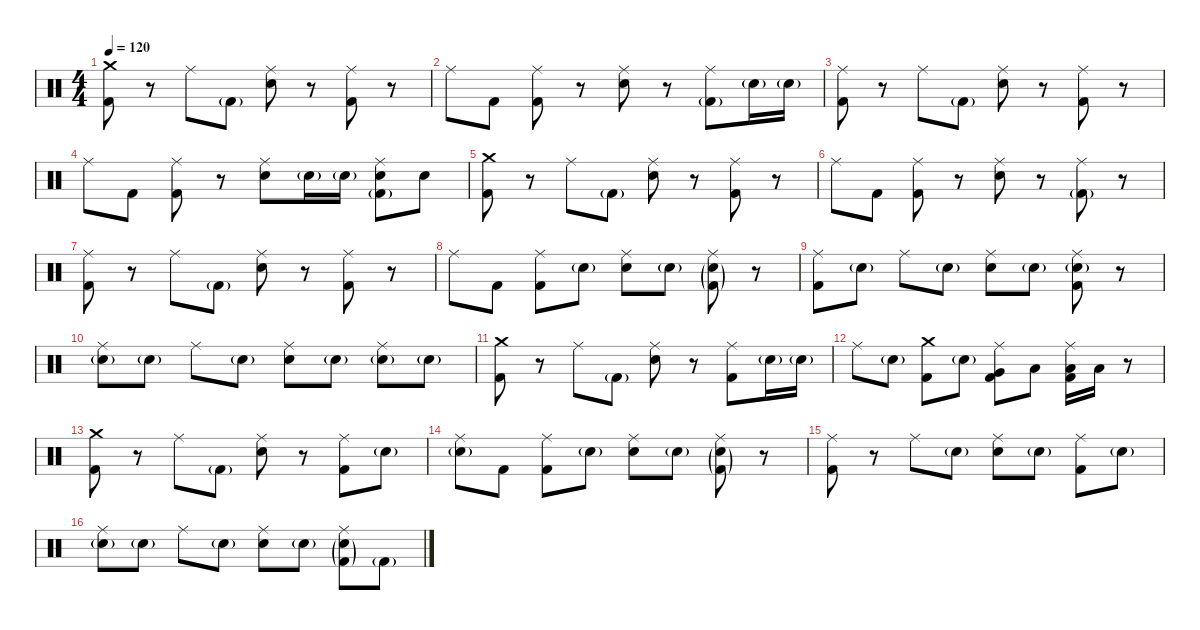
\defaultSystemsLayout 4
\hideDynamics
\bracketExtendMode nobrackets
\singleTrackTrackNamePolicy hidden
\multiTrackTrackNamePolicy hidden
\firstSystemTrackNameMode fullname
\firstSystemTrackNameOrientation horizontal
\otherSystemsTrackNameOrientation horizontal
\track ("Martin Axenrot - Drums" "drm.") {instrument percussion}
\staff {score}
\articulation defaults
\ts (4 4)
\tempo 120
\clef neutral
\ks c
("Crash medium (hit)" "Kick (hit) 2").8{dy f beam Down} r.8{beam Down} "Ride (middle)".8{dy mf beam Down} "Kick (hit) 2"{g}.8{beam Down} ("Ride (middle)" "Snare (hit) 2").8{dy f beam Down} r.8{beam Down} ("Ride (middle)" "Kick (hit) 2").8{dy mf beam Down} r.8{beam Down} |
"Ride (middle)".8{dy f beam Down} "Kick (hit) 2".8{dy mf beam Down} ("Ride (middle)" "Kick (hit) 2").8{beam Down} r.8{beam Down} ("Ride (middle)" "Snare (hit) 2").8{dy f beam Down} r.8{beam Down} ("Ride (middle)" "Kick (hit) 2"{g}).8{dy mf beam Down} "Snare (hit) 2"{g}.16{beam Down} "Snare (hit) 2"{g}.16{beam Down} |
("Ride (middle)" "Kick (hit) 2").8{dy f beam Down} r.8{beam Down} "Ride (middle)".8{dy mf beam Down} "Kick (hit) 2"{g}.8{beam Down} ("Ride (middle)" "Snare (hit) 2").8{dy f beam Down} r.8{beam Down} ("Ride (middle)" "Kick (hit) 2").8{dy mf beam Down} r.8{beam Down} |
"Ride (middle)".8{dy f beam Down} "Kick (hit) 2".8{dy mf beam Down} ("Ride (middle)" "Kick (hit) 2").8{beam Down} r.8{beam Down} ("Ride (middle)" "Snare (hit) 2").8{dy f beam Down} "Snare (hit) 2"{g}.16{dy mf beam Down} "Snare (hit) 2"{g}.16{beam Down} ("Ride (middle)" "Snare (hit) 2" "Kick (hit) 2"{g}).8{beam Down} "Snare (hit) 2".8{dy f beam Down} |
("Crash medium (hit)" "Kick (hit) 2").8{beam Down} r.8{beam Down} "Ride (middle)".8{dy mf beam Down} "Kick (hit) 2"{g}.8{beam Down} ("Ride (middle)" "Snare (hit) 2").8{dy f beam Down} r.8{beam Down} ("Ride (middle)" "Kick (hit) 2").8{dy mf beam Down} r.8{beam Down} |
"Ride (middle)".8{dy f beam Down} "Kick (hit) 2".8{dy mf beam Down} ("Ride (middle)" "Kick (hit) 2").8{beam Down} r.8{beam Down} ("Ride (middle)" "Snare (hit) 2").8{dy f beam Down} r.8{beam Down} ("Ride (middle)" "Kick (hit) 2"{g}).8{dy mf beam Down} r.8{beam Down} |
("Ride (middle)" "Kick (hit) 2").8{dy f beam Down} r.8{beam Down} "Ride (middle)".8{dy mf beam Down} "Kick (hit) 2"{g}.8{beam Down} ("Ride (middle)" "Snare (hit) 2").8{dy f beam Down} r.8{beam Down} ("Ride (middle)" "Kick (hit) 2").8{dy mf beam Down} r.8{beam Down} |
"Ride (middle)".8{dy f beam Down} "Kick (hit) 2".8{dy mf beam Down} ("Ride (middle)" "Kick (hit) 2").8{beam Down} "Snare (hit) 2"{g}.8{beam Down} ("Ride (middle)" "Snare (hit) 2").8{dy f beam Down} "Snare (hit) 2"{g}.8{dy mf beam Down} ("Ride (middle)" "Snare (hit) 2"{g} "Kick (hit) 2"{g}).8{beam Down} r.8{beam Down} |
("Ride (middle)" "Kick (hit) 2").8{dy f beam Down} "Snare (hit) 2"{g}.8{dy mf beam Down} "Ride (middle)".8{beam Down} "Snare (hit) 2"{g}.8{beam Down} ("Ride (middle)" "Snare (hit) 2").8{dy f beam Down} "Snare (hit) 2"{g}.8{dy mf beam Down} ("Ride (middle)" "Snare (hit) 2"{g} "Kick (hit) 2").8{beam Down} r.8{beam Down} |
("Ride (middle)" "Snare (hit) 2"{g}).8{dy f beam Down} "Snare (hit) 2"{g}.8{dy mf beam Down} "Ride (middle)".8{beam Down} "Snare (hit) 2"{g}.8{beam Down} ("Ride (middle)" "Snare (hit) 2").8{dy f beam Down} "Snare (hit) 2"{g}.8{dy mf beam Down} ("Ride (middle)" "Snare (hit) 2"{g}).8{beam Down} "Snare (hit) 2"{g}.8{beam Down} |
("Crash medium (hit)" "Kick (hit) 2").8{dy f beam Down} r.8{beam Down} "Ride (middle)".8{dy mf beam Down} "Kick (hit) 2"{g}.8{beam Down} ("Ride (middle)" "Snare (hit) 2").8{dy f beam Down} r.8{beam Down} ("Ride (middle)" "Kick (hit) 2").8{dy mf beam Down} "Snare (hit) 2"{g}.16{beam Down} "Snare (hit) 2"{g}.16{beam Down} |
"Ride (middle)".8{dy f beam Down} "Snare (hit) 2"{g}.8{dy mf beam Down} ("Crash medium (hit)" "Kick (hit) 2").8{dy f beam Down} "Snare (hit) 2"{g}.8{dy mf beam Down} ("Ride (middle)" "Very Low Tom (hit)" "Kick (hit) 2").8{dy f beam Down} "Low Floor Tom (hit)".8{beam Down} ("Ride (middle)" "Low Floor Tom (hit)" "Kick (hit) 2").16{beam Down} "Low Floor Tom (hit)".16{beam Down} r.8{beam Down} |
("Crash medium (hit)" "Kick (hit) 2").8{beam Down} r.8{beam Down} "Ride (middle)".8{dy mf beam Down} "Kick (hit) 2"{g}.8{beam Down} ("Ride (middle)" "Snare (hit) 2").8{dy f beam Down} r.8{beam Down} ("Ride (middle)" "Kick (hit) 2").8{dy mf beam Down} "Snare (hit) 2"{g}.8{beam Down} |
("Ride (middle)" "Snare (hit) 2"{g}).8{dy f beam Down} "Kick (hit) 2".8{dy mf beam Down} ("Ride (middle)" "Kick (hit) 2").8{beam Down} "Snare (hit) 2"{g}.8{beam Down} ("Ride (middle)" "Snare (hit) 2").8{dy f beam Down} "Snare (hit) 2"{g}.8{dy mf beam Down} ("Ride (middle)" "Snare (hit) 2"{g} "Kick (hit) 2"{g}).8{beam Down} r.8{beam Down} |
("Ride (middle)" "Kick (hit) 2").8{dy f beam Down} r.8{beam Down} "Ride (middle)".8{dy mf beam Down} "Snare (hit) 2"{g}.8{beam Down} ("Ride (middle)" "Snare (hit) 2").8{dy f beam Down} "Snare (hit) 2"{g}.8{dy mf beam Down} ("Ride (middle)" "Kick (hit) 2").8{beam Down} "Snare (hit) 2"{g}.8{beam Down} |
("Ride (middle)" "Snare (hit) 2"{g}).8{dy f beam Down} "Snare (hit) 2"{g}.8{dy mf beam Down} "Ride (middle)".8{beam Down} "Snare (hit) 2"{g}.8{beam Down} ("Ride (middle)" "Snare (hit) 2").8{dy f beam Down} "Snare (hit) 2"{g}.8{dy mf beam Down} ("Ride (middle)" "Snare (hit) 2"{g} "Kick (hit) 2"{g}).8{beam Down} "Kick (hit) 2"{g}.8{beam Down}
